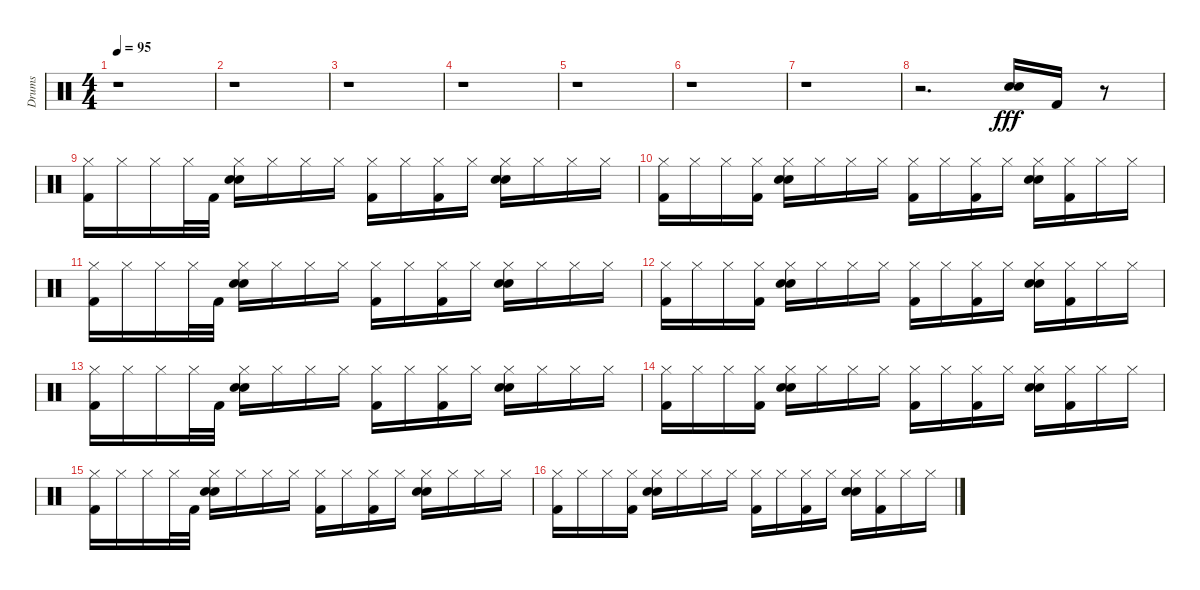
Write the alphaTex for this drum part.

\track ("Drums" "Drums") {instrument percussion}
\staff {score}
\articulation defaults
\ts (4 4)
\tempo 95
\clef neutral
\ks c
r.1{dy fff} |
r.1 |
r.1 |
r.1 |
r.1 |
r.1 |
r.1 |
r.2{d} ("Electric Snare (hit)" "Snare (hit) 2").16 "Kick (hit) 2".16 r.8 |
("Hi-Hat (closed)" "Kick (hit) 2").16 "Hi-Hat (closed)".16 "Hi-Hat (closed)".16 "Hi-Hat (closed)".32 "Kick (hit) 2".32 ("Hi-Hat (closed)" "Snare (hit) 2" "Electric Snare (hit)").16 "Hi-Hat (closed)".16 "Hi-Hat (closed)".16 "Hi-Hat (closed)".16 ("Hi-Hat (closed)" "Kick (hit) 2").16 "Hi-Hat (closed)".16 ("Hi-Hat (closed)" "Kick (hit) 2").16 "Hi-Hat (closed)".16 ("Hi-Hat (closed)" "Snare (hit) 2" "Electric Snare (hit)").16 "Hi-Hat (closed)".16 "Hi-Hat (closed)".16 "Hi-Hat (closed)".16 |
("Kick (hit) 2" "Hi-Hat (closed)").16 "Hi-Hat (closed)".16 "Hi-Hat (closed)".16 ("Kick (hit) 2" "Hi-Hat (closed)").16 ("Snare (hit) 2" "Electric Snare (hit)" "Hi-Hat (closed)").16 "Hi-Hat (closed)".16 "Hi-Hat (closed)".16 "Hi-Hat (closed)".16 ("Kick (hit) 2" "Hi-Hat (closed)").16 "Hi-Hat (closed)".16 ("Kick (hit) 2" "Hi-Hat (closed)").16 "Hi-Hat (closed)".16 ("Snare (hit) 2" "Electric Snare (hit)" "Hi-Hat (closed)").16 ("Kick (hit) 2" "Hi-Hat (closed)").16 "Hi-Hat (closed)".16 "Hi-Hat (closed)".16 |
("Hi-Hat (closed)" "Kick (hit) 2").16 "Hi-Hat (closed)".16 "Hi-Hat (closed)".16 "Hi-Hat (closed)".32 "Kick (hit) 2".32 ("Hi-Hat (closed)" "Snare (hit) 2" "Electric Snare (hit)").16 "Hi-Hat (closed)".16 "Hi-Hat (closed)".16 "Hi-Hat (closed)".16 ("Hi-Hat (closed)" "Kick (hit) 2").16 "Hi-Hat (closed)".16 ("Hi-Hat (closed)" "Kick (hit) 2").16 "Hi-Hat (closed)".16 ("Hi-Hat (closed)" "Snare (hit) 2" "Electric Snare (hit)").16 "Hi-Hat (closed)".16 "Hi-Hat (closed)".16 "Hi-Hat (closed)".16 |
("Kick (hit) 2" "Hi-Hat (closed)").16 "Hi-Hat (closed)".16 "Hi-Hat (closed)".16 ("Kick (hit) 2" "Hi-Hat (closed)").16 ("Snare (hit) 2" "Electric Snare (hit)" "Hi-Hat (closed)").16 "Hi-Hat (closed)".16 "Hi-Hat (closed)".16 "Hi-Hat (closed)".16 ("Kick (hit) 2" "Hi-Hat (closed)").16 "Hi-Hat (closed)".16 ("Kick (hit) 2" "Hi-Hat (closed)").16 "Hi-Hat (closed)".16 ("Snare (hit) 2" "Electric Snare (hit)" "Hi-Hat (closed)").16 ("Kick (hit) 2" "Hi-Hat (closed)").16 "Hi-Hat (closed)".16 "Hi-Hat (closed)".16 |
("Hi-Hat (closed)" "Kick (hit) 2").16 "Hi-Hat (closed)".16 "Hi-Hat (closed)".16 "Hi-Hat (closed)".32 "Kick (hit) 2".32 ("Hi-Hat (closed)" "Snare (hit) 2" "Electric Snare (hit)").16 "Hi-Hat (closed)".16 "Hi-Hat (closed)".16 "Hi-Hat (closed)".16 ("Hi-Hat (closed)" "Kick (hit) 2").16 "Hi-Hat (closed)".16 ("Hi-Hat (closed)" "Kick (hit) 2").16 "Hi-Hat (closed)".16 ("Hi-Hat (closed)" "Snare (hit) 2" "Electric Snare (hit)").16 "Hi-Hat (closed)".16 "Hi-Hat (closed)".16 "Hi-Hat (closed)".16 |
("Kick (hit) 2" "Hi-Hat (closed)").16 "Hi-Hat (closed)".16 "Hi-Hat (closed)".16 ("Kick (hit) 2" "Hi-Hat (closed)").16 ("Snare (hit) 2" "Electric Snare (hit)" "Hi-Hat (closed)").16 "Hi-Hat (closed)".16 "Hi-Hat (closed)".16 "Hi-Hat (closed)".16 ("Kick (hit) 2" "Hi-Hat (closed)").16 "Hi-Hat (closed)".16 ("Kick (hit) 2" "Hi-Hat (closed)").16 "Hi-Hat (closed)".16 ("Snare (hit) 2" "Electric Snare (hit)" "Hi-Hat (closed)").16 ("Kick (hit) 2" "Hi-Hat (closed)").16 "Hi-Hat (closed)".16 "Hi-Hat (closed)".16 |
("Hi-Hat (closed)" "Kick (hit) 2").16 "Hi-Hat (closed)".16 "Hi-Hat (closed)".16 "Hi-Hat (closed)".32 "Kick (hit) 2".32 ("Hi-Hat (closed)" "Snare (hit) 2" "Electric Snare (hit)").16 "Hi-Hat (closed)".16 "Hi-Hat (closed)".16 "Hi-Hat (closed)".16 ("Hi-Hat (closed)" "Kick (hit) 2").16 "Hi-Hat (closed)".16 ("Hi-Hat (closed)" "Kick (hit) 2").16 "Hi-Hat (closed)".16 ("Hi-Hat (closed)" "Snare (hit) 2" "Electric Snare (hit)").16 "Hi-Hat (closed)".16 "Hi-Hat (closed)".16 "Hi-Hat (closed)".16 |
("Kick (hit) 2" "Hi-Hat (closed)").16 "Hi-Hat (closed)".16 "Hi-Hat (closed)".16 ("Kick (hit) 2" "Hi-Hat (closed)").16 ("Snare (hit) 2" "Electric Snare (hit)" "Hi-Hat (closed)").16 "Hi-Hat (closed)".16 "Hi-Hat (closed)".16 "Hi-Hat (closed)".16 ("Kick (hit) 2" "Hi-Hat (closed)").16 "Hi-Hat (closed)".16 ("Kick (hit) 2" "Hi-Hat (closed)").16 "Hi-Hat (closed)".16 ("Snare (hit) 2" "Electric Snare (hit)" "Hi-Hat (closed)").16 ("Kick (hit) 2" "Hi-Hat (closed)").16 "Hi-Hat (closed)".16 "Hi-Hat (closed)".16
